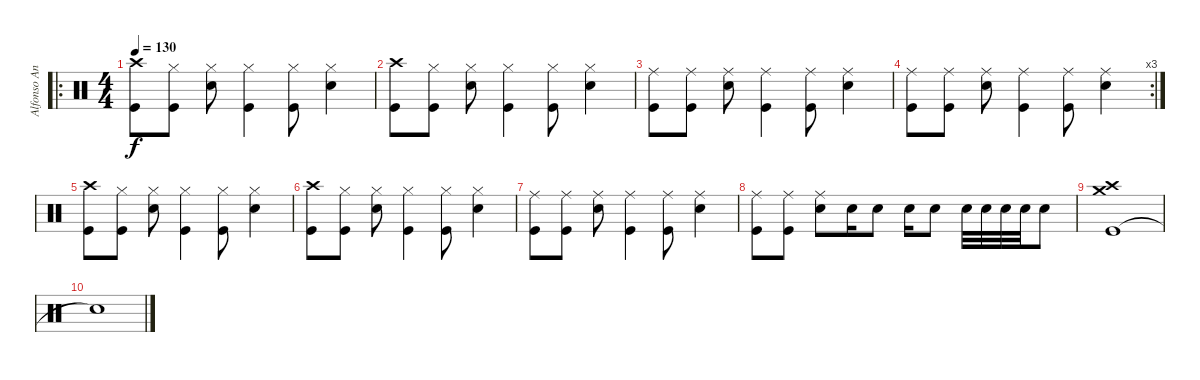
\track ("Alfonso Andre" "Alfonso An") {instrument percussion}
\staff {score}
\articulation defaults
\ro
\ts (4 4)
\tempo 130
\clef neutral
\ks c
("Kick (hit)" "Crash high (hit)").8{dy f} ("Kick (hit)" "Hi-Hat (closed)").8 ("Snare (hit) 2" "Hi-Hat (closed)").8 ("Kick (hit)" "Hi-Hat (closed)").4 ("Kick (hit)" "Hi-Hat (closed)").8 ("Snare (hit) 2" "Hi-Hat (closed)").4 |
("Kick (hit)" "Crash high (hit)").8 ("Kick (hit)" "Hi-Hat (closed)").8 ("Snare (hit) 2" "Hi-Hat (closed)").8 ("Kick (hit)" "Hi-Hat (closed)").4 ("Kick (hit)" "Hi-Hat (closed)").8 ("Snare (hit) 2" "Hi-Hat (closed)").4 |
("Kick (hit)" "Ride (middle)").8 ("Kick (hit)" "Ride (middle)").8 ("Snare (hit) 2" "Ride (middle)").8 ("Kick (hit)" "Ride (middle)").4 ("Kick (hit)" "Ride (middle)").8 ("Snare (hit) 2" "Ride (middle)").4 |
\rc 3
("Kick (hit)" "Ride (middle)").8 ("Kick (hit)" "Ride (middle)").8 ("Snare (hit) 2" "Ride (middle)").8 ("Kick (hit)" "Ride (middle)").4 ("Kick (hit)" "Ride (middle)").8 ("Snare (hit) 2" "Ride (middle)").4 |
("Kick (hit)" "Crash high (hit)").8 ("Kick (hit)" "Hi-Hat (closed)").8 ("Snare (hit) 2" "Hi-Hat (closed)").8 ("Kick (hit)" "Hi-Hat (closed)").4 ("Kick (hit)" "Hi-Hat (closed)").8 ("Snare (hit) 2" "Hi-Hat (closed)").4 |
("Kick (hit)" "Crash high (hit)").8 ("Kick (hit)" "Hi-Hat (closed)").8 ("Snare (hit) 2" "Hi-Hat (closed)").8 ("Kick (hit)" "Hi-Hat (closed)").4 ("Kick (hit)" "Hi-Hat (closed)").8 ("Snare (hit) 2" "Hi-Hat (closed)").4 |
("Kick (hit)" "Ride (middle)").8 ("Kick (hit)" "Ride (middle)").8 ("Snare (hit) 2" "Ride (middle)").8 ("Kick (hit)" "Ride (middle)").4 ("Kick (hit)" "Ride (middle)").8 ("Snare (hit) 2" "Ride (middle)").4 |
("Kick (hit)" "Ride (middle)").8 ("Kick (hit)" "Ride (middle)").8 ("Snare (hit) 2" "Ride (middle)").8 "Snare (hit) 2".16 "Snare (hit) 2".8 "Snare (hit) 2".16 "Snare (hit) 2".8 "Snare (hit) 2".32 "Snare (hit) 2".32 "Snare (hit) 2".32 "Snare (hit) 2".32 "Snare (hit) 2".8 |
("Kick (hit)" "Crash medium (hit)" "Crash high (hit)").1 |
"Snare (hit)"{t}.1
